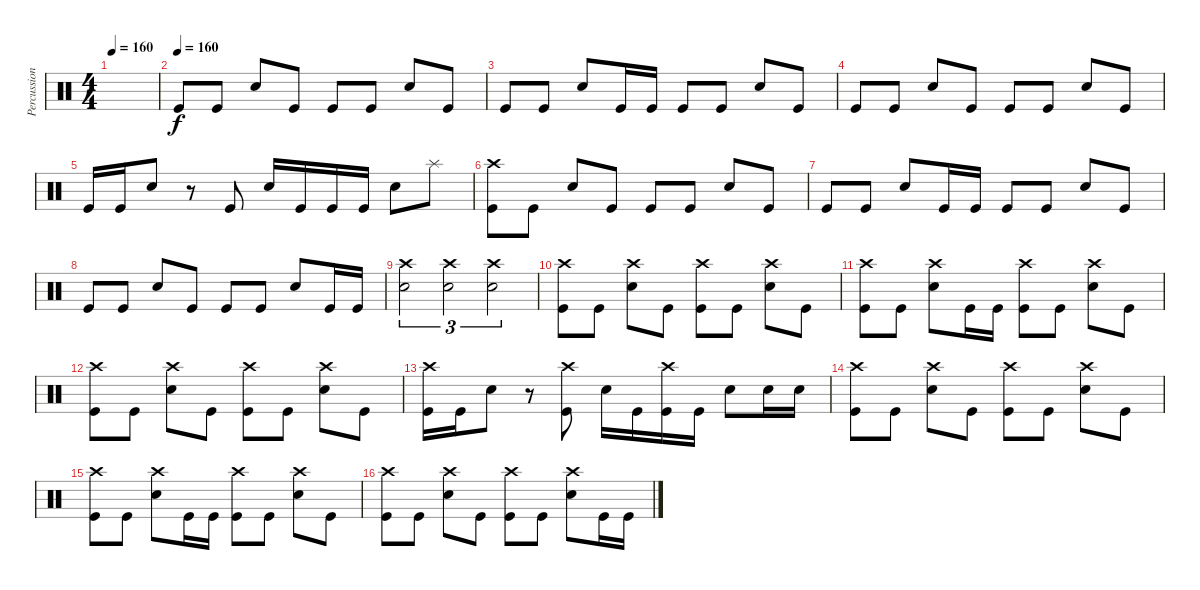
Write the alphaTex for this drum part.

\track ("Percussion" "Percussion") {instrument percussion}
\staff {score}
\articulation defaults
\ts (4 4)
\tempo 160
\tempo 120
\tempo 160
\clef neutral
\ks c
|
\tempo (160)
"Kick (hit)".8 "Kick (hit)".8 "Electric Snare (hit)".8 "Kick (hit)".8 "Kick (hit)".8 "Kick (hit)".8 "Electric Snare (hit)".8 "Kick (hit)".8 |
"Kick (hit)".8 "Kick (hit)".8 "Electric Snare (hit)".8 "Kick (hit)".16 "Kick (hit)".16 "Kick (hit)".8 "Kick (hit)".8 "Electric Snare (hit)".8 "Kick (hit)".8 |
"Kick (hit)".8 "Kick (hit)".8 "Electric Snare (hit)".8 "Kick (hit)".8 "Kick (hit)".8 "Kick (hit)".8 "Electric Snare (hit)".8 "Kick (hit)".8 |
"Kick (hit)".16 "Kick (hit)".16 "Electric Snare (hit)".8 r.8 "Kick (hit)".8 "Electric Snare (hit)".16 "Kick (hit)".16 "Kick (hit)".16 "Kick (hit)".16 "Electric Snare (hit)".8 "Splash (hit)".8 |
("Crash high (hit)" "Kick (hit)").8 "Kick (hit)".8 "Electric Snare (hit)".8 "Kick (hit)".8 "Kick (hit)".8 "Kick (hit)".8 "Electric Snare (hit)".8 "Kick (hit)".8 |
"Kick (hit)".8 "Kick (hit)".8 "Electric Snare (hit)".8 "Kick (hit)".16 "Kick (hit)".16 "Kick (hit)".8 "Kick (hit)".8 "Electric Snare (hit)".8 "Kick (hit)".8 |
"Kick (hit)".8 "Kick (hit)".8 "Electric Snare (hit)".8 "Kick (hit)".8 "Kick (hit)".8 "Kick (hit)".8 "Electric Snare (hit)".8 "Kick (hit)".16 "Kick (hit)".16 |
("Crash high (hit)" "Electric Snare (hit)").2{tu (3 2)} ("Crash high (hit)" "Electric Snare (hit)").2{tu (3 2)} ("Crash high (hit)" "Electric Snare (hit)").2{tu (3 2)} |
("Crash high (hit)" "Kick (hit)").8 "Kick (hit)".8 ("Crash high (hit)" "Electric Snare (hit)").8 "Kick (hit)".8 ("Crash high (hit)" "Kick (hit)").8 "Kick (hit)".8 ("Crash high (hit)" "Electric Snare (hit)").8 "Kick (hit)".8 |
("Crash high (hit)" "Kick (hit)").8 "Kick (hit)".8 ("Crash high (hit)" "Electric Snare (hit)").8 "Kick (hit)".16 "Kick (hit)".16 ("Crash high (hit)" "Kick (hit)").8 "Kick (hit)".8 ("Crash high (hit)" "Electric Snare (hit)").8 "Kick (hit)".8 |
("Crash high (hit)" "Kick (hit)").8 "Kick (hit)".8 ("Crash high (hit)" "Electric Snare (hit)").8 "Kick (hit)".8 ("Crash high (hit)" "Kick (hit)").8 "Kick (hit)".8 ("Crash high (hit)" "Electric Snare (hit)").8 "Kick (hit)".8 |
("Crash high (hit)" "Kick (hit)").16 "Kick (hit)".16 "Electric Snare (hit)".8 r.8 ("Crash high (hit)" "Kick (hit)").8 "Electric Snare (hit)".16 "Kick (hit)".16 ("Crash high (hit)" "Kick (hit)").16 "Kick (hit)".16 "Electric Snare (hit)".8 "Electric Snare (hit)".16 "Electric Snare (hit)".16 |
("Crash high (hit)" "Kick (hit)").8 "Kick (hit)".8 ("Crash high (hit)" "Electric Snare (hit)").8 "Kick (hit)".8 ("Crash high (hit)" "Kick (hit)").8 "Kick (hit)".8 ("Crash high (hit)" "Electric Snare (hit)").8 "Kick (hit)".8 |
("Crash high (hit)" "Kick (hit)").8 "Kick (hit)".8 ("Crash high (hit)" "Electric Snare (hit)").8 "Kick (hit)".16 "Kick (hit)".16 ("Crash high (hit)" "Kick (hit)").8 "Kick (hit)".8 ("Crash high (hit)" "Electric Snare (hit)").8 "Kick (hit)".8 |
("Crash high (hit)" "Kick (hit)").8 "Kick (hit)".8 ("Crash high (hit)" "Electric Snare (hit)").8 "Kick (hit)".8 ("Crash high (hit)" "Kick (hit)").8 "Kick (hit)".8 ("Crash high (hit)" "Electric Snare (hit)").8 "Kick (hit)".16 "Kick (hit)".16
